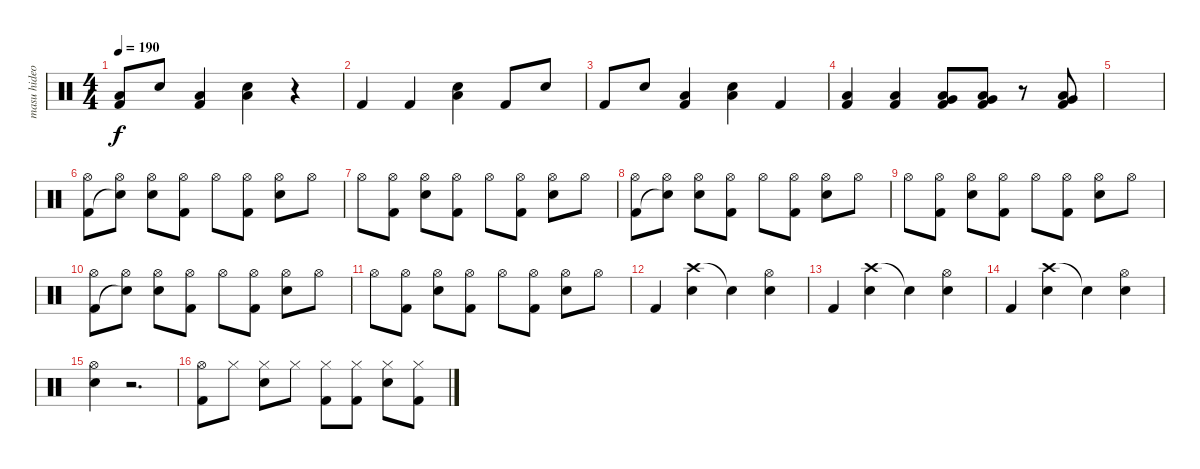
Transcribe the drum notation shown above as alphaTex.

\track ("masu hideo" "masu hideo") {instrument percussion}
\staff {score}
\articulation defaults
\ts (4 4)
\tempo 190
\clef neutral
\ks c
("Low Floor Tom (hit)" "Kick (hit) 2").8{dy f} "Snare (hit) 2".8 ("Low Floor Tom (hit)" "Kick (hit) 2").4 ("Snare (hit) 2" "Low Floor Tom (hit)").4 r.4 |
"Kick (hit) 2".4 "Kick (hit) 2".4 ("Snare (hit) 2" "Low Floor Tom (hit)").4 "Kick (hit) 2".8 "Snare (hit) 2".8 |
"Kick (hit) 2".8 "Snare (hit) 2".8 ("Low Floor Tom (hit)" "Kick (hit) 2").4 ("Snare (hit) 2" "Low Floor Tom (hit)").4 "Kick (hit) 2".4 |
("Low Floor Tom (hit)" "Kick (hit) 2").4 ("Low Floor Tom (hit)" "Kick (hit) 2").4 ("Very Low Tom (hit)" "Low Floor Tom (hit)" "Kick (hit) 2").8 ("Very Low Tom (hit)" "Low Floor Tom (hit)" "Kick (hit) 2").8 r.8 ("Very Low Tom (hit)" "Low Floor Tom (hit)" "Kick (hit) 2").8 |
|
("Hi-Hat (open)" "Kick (hit) 2").8 ("Hi-Hat (open)" "Snare (hit)"{t}).8 ("Hi-Hat (open)" "Snare (hit) 2").8 ("Hi-Hat (open)" "Kick (hit) 2").8 "Hi-Hat (open)".8 ("Hi-Hat (open)" "Kick (hit) 2").8 ("Hi-Hat (open)" "Snare (hit) 2").8 "Hi-Hat (open)".8 |
"Hi-Hat (open)".8 ("Hi-Hat (open)" "Kick (hit) 2").8 ("Hi-Hat (open)" "Snare (hit) 2").8 ("Hi-Hat (open)" "Kick (hit) 2").8 "Hi-Hat (open)".8 ("Hi-Hat (open)" "Kick (hit) 2").8 ("Hi-Hat (open)" "Snare (hit) 2").8 "Hi-Hat (open)".8 |
("Hi-Hat (open)" "Kick (hit) 2").8 ("Hi-Hat (open)" "Snare (hit)"{t}).8 ("Hi-Hat (open)" "Snare (hit) 2").8 ("Hi-Hat (open)" "Kick (hit) 2").8 "Hi-Hat (open)".8 ("Hi-Hat (open)" "Kick (hit) 2").8 ("Hi-Hat (open)" "Snare (hit) 2").8 "Hi-Hat (open)".8 |
"Hi-Hat (open)".8 ("Hi-Hat (open)" "Kick (hit) 2").8 ("Hi-Hat (open)" "Snare (hit) 2").8 ("Hi-Hat (open)" "Kick (hit) 2").8 "Hi-Hat (open)".8 ("Hi-Hat (open)" "Kick (hit) 2").8 ("Hi-Hat (open)" "Snare (hit) 2").8 "Hi-Hat (open)".8 |
("Hi-Hat (open)" "Kick (hit) 2").8 ("Hi-Hat (open)" "Snare (hit)"{t}).8 ("Hi-Hat (open)" "Snare (hit) 2").8 ("Hi-Hat (open)" "Kick (hit) 2").8 "Hi-Hat (open)".8 ("Hi-Hat (open)" "Kick (hit) 2").8 ("Hi-Hat (open)" "Snare (hit) 2").8 "Hi-Hat (open)".8 |
"Hi-Hat (open)".8 ("Hi-Hat (open)" "Kick (hit) 2").8 ("Hi-Hat (open)" "Snare (hit) 2").8 ("Hi-Hat (open)" "Kick (hit) 2").8 "Hi-Hat (open)".8 ("Hi-Hat (open)" "Kick (hit) 2").8 ("Hi-Hat (open)" "Snare (hit) 2").8 "Hi-Hat (open)".8 |
"Kick (hit) 2".4 ("Crash high (hit)" "Snare (hit) 2").4 "Snare (hit)"{t}.4 ("Hi-Hat (open)" "Snare (hit) 2").4 |
"Kick (hit) 2".4 ("Crash high (hit)" "Snare (hit) 2").4 "Snare (hit)"{t}.4 ("Hi-Hat (open)" "Snare (hit) 2").4 |
"Kick (hit) 2".4 ("Crash high (hit)" "Snare (hit) 2").4 "Snare (hit)"{t}.4 ("Hi-Hat (open)" "Snare (hit) 2").4 |
("Hi-Hat (open)" "Snare (hit) 2").4 r.2{d} |
("Hi-Hat (open)" "Kick (hit) 2").8 "Hi-Hat (closed)".8 ("Hi-Hat (closed)" "Snare (hit) 2").8 "Hi-Hat (closed)".8 ("Hi-Hat (closed)" "Kick (hit) 2").8 ("Hi-Hat (closed)" "Kick (hit) 2").8 ("Hi-Hat (closed)" "Snare (hit) 2").8 ("Hi-Hat (closed)" "Kick (hit) 2").8
